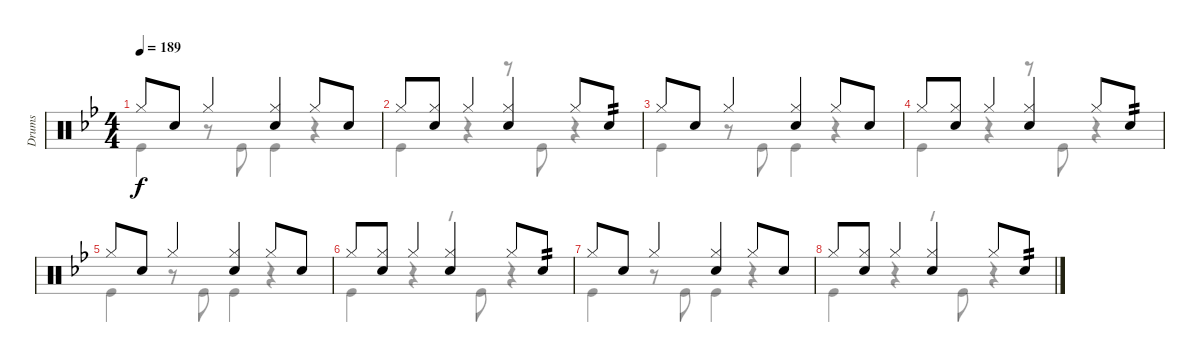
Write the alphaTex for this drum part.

\track ("Drums" "Drums") {instrument percussion}
\staff {score}
\articulation defaults
\voice
\ts (4 4)
\tempo 189
\clef neutral
\ks bb "Hi-Hat (closed)".8{dy f} "Snare (hit) 2".8 "Hi-Hat (closed)".4
("Hi-Hat (closed)" "Snare (hit) 2").4 "Hi-Hat (closed)".8 "Snare (hit) 2".8 |
"Hi-Hat (closed)".8 ("Hi-Hat (closed)" "Snare (hit) 2").8 "Hi-Hat (closed)".4 ("Hi-Hat (closed)" "Snare (hit) 2").4 "Hi-Hat (closed)".8 "Snare (hit) 2".8{tp 2} |
"Hi-Hat (closed)".8 "Snare (hit) 2".8 "Hi-Hat (closed)".4 ("Hi-Hat (closed)" "Snare (hit) 2").4 "Hi-Hat (closed)".8 "Snare (hit) 2".8 |
"Hi-Hat (closed)".8 ("Hi-Hat (closed)" "Snare (hit) 2").8 "Hi-Hat (closed)".4 ("Hi-Hat (closed)" "Snare (hit) 2").4 "Hi-Hat (closed)".8 "Snare (hit) 2".8{tp 2} |
"Hi-Hat (closed)".8 "Snare (hit) 2".8 "Hi-Hat (closed)".4 ("Hi-Hat (closed)" "Snare (hit) 2").4 "Hi-Hat (closed)".8 "Snare (hit) 2".8 |
"Hi-Hat (closed)".8 ("Hi-Hat (closed)" "Snare (hit) 2").8 "Hi-Hat (closed)".4 ("Hi-Hat (closed)" "Snare (hit) 2").4 "Hi-Hat (closed)".8 "Snare (hit) 2".8{tp 2} |
"Hi-Hat (closed)".8 "Snare (hit) 2".8 "Hi-Hat (closed)".4 ("Hi-Hat (closed)" "Snare (hit) 2").4 "Hi-Hat (closed)".8 "Snare (hit) 2".8 |
"Hi-Hat (closed)".8 ("Hi-Hat (closed)" "Snare (hit) 2").8 "Hi-Hat (closed)".4 ("Hi-Hat (closed)" "Snare (hit) 2").4 "Hi-Hat (closed)".8 "Snare (hit) 2".8{tp 2}
\voice
\clef neutral
\ottava regular
\simile none
\ks bb "Kick (hit)".4{dy f}
r.8 "Kick (hit)".8 "Kick (hit)".4 r.4 |
"Kick (hit)".4 r.4 r.8 "Kick (hit)".8 r.4 |
"Kick (hit)".4 r.8 "Kick (hit)".8 "Kick (hit)".4 r.4 |
"Kick (hit)".4 r.4 r.8 "Kick (hit)".8 r.4 |
"Kick (hit)".4 r.8 "Kick (hit)".8 "Kick (hit)".4 r.4 |
"Kick (hit)".4 r.4 r.8 "Kick (hit)".8 r.4 |
"Kick (hit)".4 r.8 "Kick (hit)".8 "Kick (hit)".4 r.4 |
"Kick (hit)".4 r.4 r.8 "Kick (hit)".8 r.4
